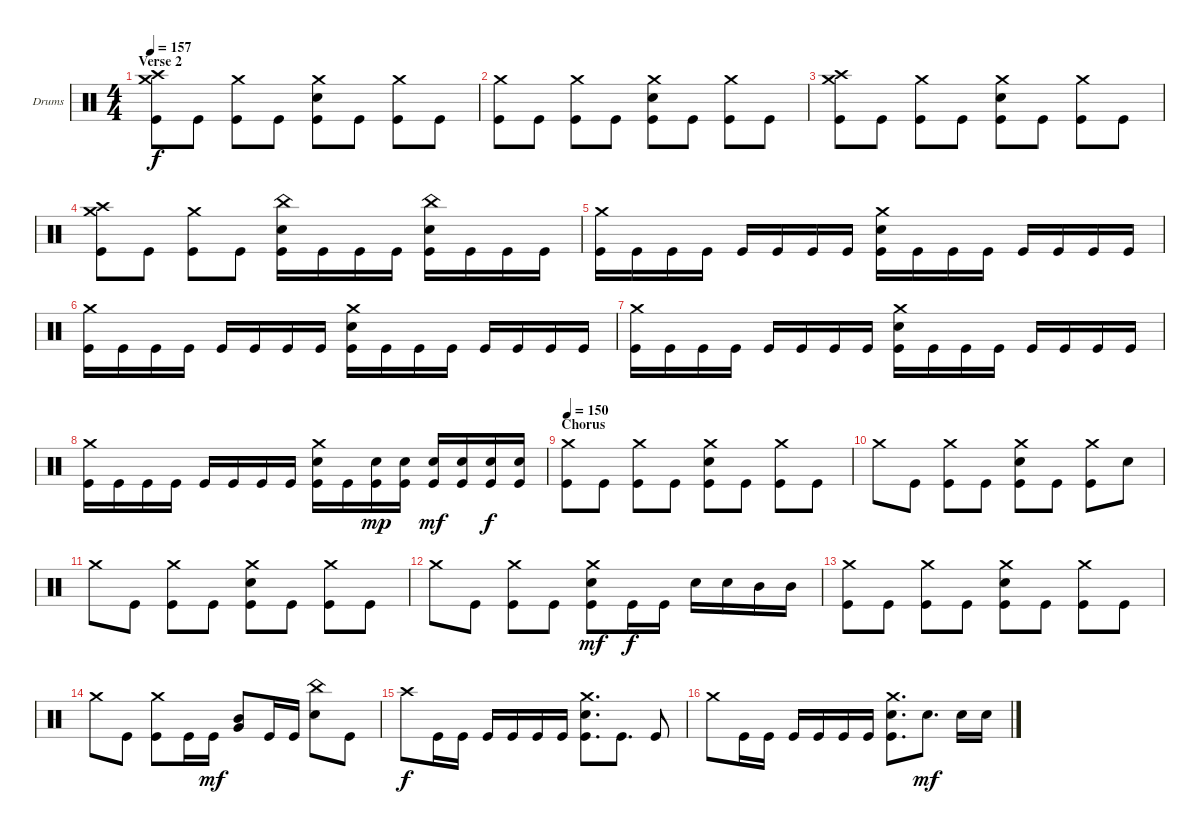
\bracketExtendMode groupsimilarinstruments
\firstSystemTrackNameOrientation horizontal
\otherSystemsTrackNameOrientation horizontal
\track ("Drumkit" "Drums") {instrument percussion}
\staff {score}
\articulation defaults
\ts (4 4)
\section ("" "Verse 2")
\tempo 157
\clef neutral
\ks c
("Crash medium (hit)" "Crash high (hit)" "Kick (hit)").8{dy f} "Kick (hit)".8 ("Crash medium (hit)" "Kick (hit)").8 "Kick (hit)".8 ("Crash medium (hit)" "Snare (hit) 2" "Kick (hit)").8 "Kick (hit)".8 ("Crash medium (hit)" "Kick (hit)").8 "Kick (hit)".8 |
("Crash medium (hit)" "Kick (hit)").8 "Kick (hit)".8 ("Crash medium (hit)" "Kick (hit)").8 "Kick (hit)".8 ("Crash medium (hit)" "Snare (hit) 2" "Kick (hit)").8 "Kick (hit)".8 ("Crash medium (hit)" "Kick (hit)").8 "Kick (hit)".8 |
("Crash medium (hit)" "Crash high (hit)" "Kick (hit)").8 "Kick (hit)".8 ("Crash medium (hit)" "Kick (hit)").8 "Kick (hit)".8 ("Crash medium (hit)" "Snare (hit) 2" "Kick (hit)").8 "Kick (hit)".8 ("Crash medium (hit)" "Kick (hit)").8 "Kick (hit)".8 |
("Crash medium (hit)" "Crash high (hit)" "Kick (hit)").8 "Kick (hit)".8 ("Crash medium (hit)" "Kick (hit)").8 "Kick (hit)".8 ("China (hit)" "Snare (hit) 2" "Kick (hit)").16 "Kick (hit)".16 "Kick (hit)".16 "Kick (hit)".16 ("China (hit)" "Snare (hit) 2" "Kick (hit)").16 "Kick (hit)".16 "Kick (hit)".16 "Kick (hit)".16 |
("Crash medium (hit)" "Kick (hit)").16 "Kick (hit)".16 "Kick (hit)".16 "Kick (hit)".16 "Kick (hit)".16 "Kick (hit)".16 "Kick (hit)".16 "Kick (hit)".16 ("Crash medium (hit)" "Snare (hit) 2" "Kick (hit)").16 "Kick (hit)".16 "Kick (hit)".16 "Kick (hit)".16 "Kick (hit)".16 "Kick (hit)".16 "Kick (hit)".16 "Kick (hit)".16 |
("Crash medium (hit)" "Kick (hit)").16 "Kick (hit)".16 "Kick (hit)".16 "Kick (hit)".16 "Kick (hit)".16 "Kick (hit)".16 "Kick (hit)".16 "Kick (hit)".16 ("Crash medium (hit)" "Snare (hit) 2" "Kick (hit)").16 "Kick (hit)".16 "Kick (hit)".16 "Kick (hit)".16 "Kick (hit)".16 "Kick (hit)".16 "Kick (hit)".16 "Kick (hit)".16 |
("Crash medium (hit)" "Kick (hit)").16 "Kick (hit)".16 "Kick (hit)".16 "Kick (hit)".16 "Kick (hit)".16 "Kick (hit)".16 "Kick (hit)".16 "Kick (hit)".16 ("Crash medium (hit)" "Snare (hit) 2" "Kick (hit)").16 "Kick (hit)".16 "Kick (hit)".16 "Kick (hit)".16 "Kick (hit)".16 "Kick (hit)".16 "Kick (hit)".16 "Kick (hit)".16 |
("Crash medium (hit)" "Kick (hit)").16 "Kick (hit)".16 "Kick (hit)".16 "Kick (hit)".16 "Kick (hit)".16 "Kick (hit)".16 "Kick (hit)".16 "Kick (hit)".16 ("Crash medium (hit)" "Snare (hit) 2" "Kick (hit)").16 "Kick (hit)".16 ("Snare (hit) 2" "Kick (hit)").16{dy mp} ("Snare (hit) 2" "Kick (hit)").16 ("Snare (hit) 2" "Kick (hit)").16{dy mf} ("Snare (hit) 2" "Kick (hit)").16 ("Snare (hit) 2" "Kick (hit)").16{dy f} ("Snare (hit) 2" "Kick (hit)").16 |
\section ("" "Chorus")
\tempo 150
("Crash medium (hit)" "Kick (hit)").8 "Kick (hit)".8 ("Crash medium (hit)" "Kick (hit)").8 "Kick (hit)".8 ("Crash medium (hit)" "Snare (hit) 2" "Kick (hit)").8 "Kick (hit)".8 ("Crash medium (hit)" "Kick (hit)").8 "Kick (hit)".8 |
"Crash medium (hit)".8 "Kick (hit)".8 ("Crash medium (hit)" "Kick (hit)").8 "Kick (hit)".8 ("Crash medium (hit)" "Snare (hit) 2" "Kick (hit)").8 "Kick (hit)".8 ("Crash medium (hit)" "Kick (hit)").8 "Snare (hit) 2".8 |
"Crash medium (hit)".8 "Kick (hit)".8 ("Crash medium (hit)" "Kick (hit)").8 "Kick (hit)".8 ("Crash medium (hit)" "Snare (hit) 2" "Kick (hit)").8 "Kick (hit)".8 ("Crash medium (hit)" "Kick (hit)").8 "Kick (hit)".8 |
"Crash medium (hit)".8 "Kick (hit)".8 ("Crash medium (hit)" "Kick (hit)").8 "Kick (hit)".8 ("Crash medium (hit)" "Snare (hit) 2" "Kick (hit)").8{dy mf} "Kick (hit)".16{dy f} "Kick (hit)".16 "Snare (hit) 2".16 "Snare (hit) 2".16 "Mid Tom (hit)".16 "Mid Tom (hit)".16 |
("Crash medium (hit)" "Kick (hit)").8 "Kick (hit)".8 ("Crash medium (hit)" "Kick (hit)").8 "Kick (hit)".8 ("Crash medium (hit)" "Snare (hit) 2" "Kick (hit)").8 "Kick (hit)".8 ("Crash medium (hit)" "Kick (hit)").8 "Kick (hit)".8 |
"Crash medium (hit)".8 "Kick (hit)".8 ("Crash medium (hit)" "Kick (hit)").8 "Kick (hit)".16 "Kick (hit)".16{dy mf} ("Mid Tom (hit)" "Very Low Tom (hit)").8 "Kick (hit)".16 "Kick (hit)".16 ("China (hit)" "Snare (hit) 2").8 "Kick (hit)".8 |
"Crash high (hit)".8{dy f} "Kick (hit)".16 "Kick (hit)".16 "Kick (hit)".16 "Kick (hit)".16 "Kick (hit)".16 "Kick (hit)".16 ("Crash medium (hit)" "Snare (hit) 2" "Kick (hit)").8{d} "Kick (hit)".8{d} "Kick (hit)".8 |
"Crash medium (hit)".8 "Kick (hit)".16 "Kick (hit)".16 "Kick (hit)".16 "Kick (hit)".16 "Kick (hit)".16 "Kick (hit)".16 ("Crash medium (hit)" "Snare (hit) 2" "Kick (hit)").8{d} "Snare (hit) 2".8{d dy mf} "Snare (hit) 2".16 "Snare (hit) 2".16
